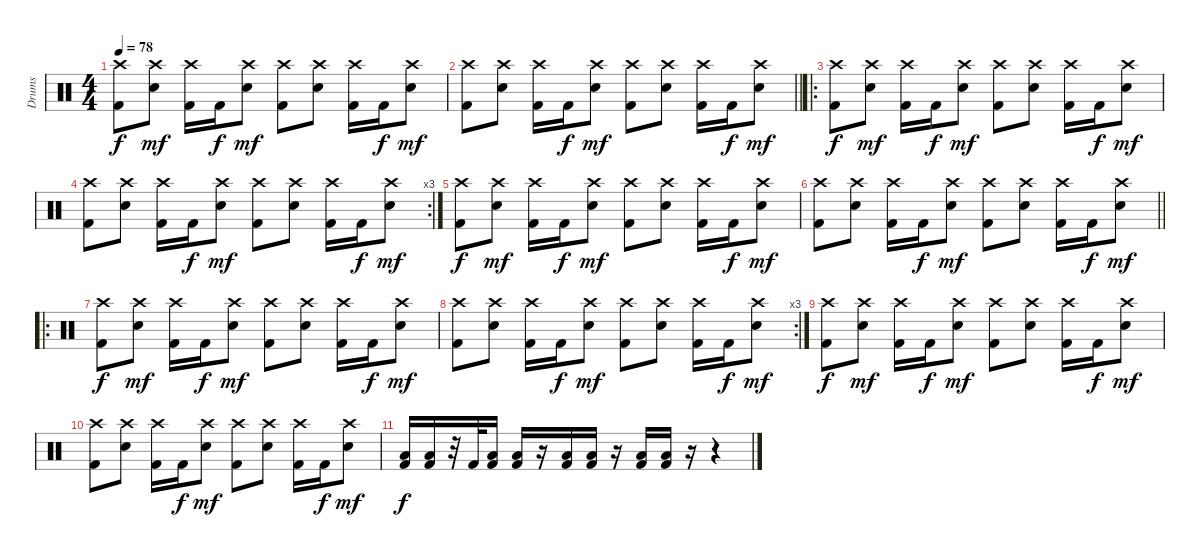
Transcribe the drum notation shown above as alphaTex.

\track ("Drums" "Drums") {instrument percussion}
\staff {score}
\articulation defaults
\ts (4 4)
\tempo 78
\clef neutral
\ks c
("Crash high (hit)" "Kick (hit) 2").8{dy f} ("Crash high (hit)" "Electric Snare (hit)").8{dy mf} ("Crash high (hit)" "Kick (hit) 2").16 "Kick (hit) 2".16{dy f} ("Crash high (hit)" "Electric Snare (hit)").8{dy mf} ("Crash high (hit)" "Kick (hit) 2").8 ("Crash high (hit)" "Electric Snare (hit)").8 ("Crash high (hit)" "Kick (hit) 2").16 "Kick (hit) 2".16{dy f} ("Crash high (hit)" "Electric Snare (hit)").8{dy mf} |
\barLineRight lightlight
("Crash high (hit)" "Kick (hit) 2").8 ("Crash high (hit)" "Electric Snare (hit)").8 ("Crash high (hit)" "Kick (hit) 2").16 "Kick (hit) 2".16{dy f} ("Crash high (hit)" "Electric Snare (hit)").8{dy mf} ("Crash high (hit)" "Kick (hit) 2").8 ("Crash high (hit)" "Electric Snare (hit)").8 ("Crash high (hit)" "Kick (hit) 2").16 "Kick (hit) 2".16{dy f} ("Crash high (hit)" "Electric Snare (hit)").8{dy mf} |
\ro
\section ("" "")
("Crash high (hit)" "Kick (hit) 2").8{dy f} ("Crash high (hit)" "Electric Snare (hit)").8{dy mf} ("Crash high (hit)" "Kick (hit) 2").16 "Kick (hit) 2".16{dy f} ("Crash high (hit)" "Electric Snare (hit)").8{dy mf} ("Crash high (hit)" "Kick (hit) 2").8 ("Crash high (hit)" "Electric Snare (hit)").8 ("Crash high (hit)" "Kick (hit) 2").16 "Kick (hit) 2".16{dy f} ("Crash high (hit)" "Electric Snare (hit)").8{dy mf} |
\rc 3
("Crash high (hit)" "Kick (hit) 2").8 ("Crash high (hit)" "Electric Snare (hit)").8 ("Crash high (hit)" "Kick (hit) 2").16 "Kick (hit) 2".16{dy f} ("Crash high (hit)" "Electric Snare (hit)").8{dy mf} ("Crash high (hit)" "Kick (hit) 2").8 ("Crash high (hit)" "Electric Snare (hit)").8 ("Crash high (hit)" "Kick (hit) 2").16 "Kick (hit) 2".16{dy f} ("Crash high (hit)" "Electric Snare (hit)").8{dy mf} |
("Crash high (hit)" "Kick (hit) 2").8{dy f} ("Crash high (hit)" "Electric Snare (hit)").8{dy mf} ("Crash high (hit)" "Kick (hit) 2").16 "Kick (hit) 2".16{dy f} ("Crash high (hit)" "Electric Snare (hit)").8{dy mf} ("Crash high (hit)" "Kick (hit) 2").8 ("Crash high (hit)" "Electric Snare (hit)").8 ("Crash high (hit)" "Kick (hit) 2").16 "Kick (hit) 2".16{dy f} ("Crash high (hit)" "Electric Snare (hit)").8{dy mf} |
\barLineRight lightlight
("Crash high (hit)" "Kick (hit) 2").8 ("Crash high (hit)" "Electric Snare (hit)").8 ("Crash high (hit)" "Kick (hit) 2").16 "Kick (hit) 2".16{dy f} ("Crash high (hit)" "Electric Snare (hit)").8{dy mf} ("Crash high (hit)" "Kick (hit) 2").8 ("Crash high (hit)" "Electric Snare (hit)").8 ("Crash high (hit)" "Kick (hit) 2").16 "Kick (hit) 2".16{dy f} ("Crash high (hit)" "Electric Snare (hit)").8{dy mf} |
\ro
\section ("" "")
("Crash high (hit)" "Kick (hit) 2").8{dy f} ("Crash high (hit)" "Electric Snare (hit)").8{dy mf} ("Crash high (hit)" "Kick (hit) 2").16 "Kick (hit) 2".16{dy f} ("Crash high (hit)" "Electric Snare (hit)").8{dy mf} ("Crash high (hit)" "Kick (hit) 2").8 ("Crash high (hit)" "Electric Snare (hit)").8 ("Crash high (hit)" "Kick (hit) 2").16 "Kick (hit) 2".16{dy f} ("Crash high (hit)" "Electric Snare (hit)").8{dy mf} |
\rc 3
("Crash high (hit)" "Kick (hit) 2").8 ("Crash high (hit)" "Electric Snare (hit)").8 ("Crash high (hit)" "Kick (hit) 2").16 "Kick (hit) 2".16{dy f} ("Crash high (hit)" "Electric Snare (hit)").8{dy mf} ("Crash high (hit)" "Kick (hit) 2").8 ("Crash high (hit)" "Electric Snare (hit)").8 ("Crash high (hit)" "Kick (hit) 2").16 "Kick (hit) 2".16{dy f} ("Crash high (hit)" "Electric Snare (hit)").8{dy mf} |
("Crash high (hit)" "Kick (hit) 2").8{dy f} ("Crash high (hit)" "Electric Snare (hit)").8{dy mf} ("Crash high (hit)" "Kick (hit) 2").16 "Kick (hit) 2".16{dy f} ("Crash high (hit)" "Electric Snare (hit)").8{dy mf} ("Crash high (hit)" "Kick (hit) 2").8 ("Crash high (hit)" "Electric Snare (hit)").8 ("Crash high (hit)" "Kick (hit) 2").16 "Kick (hit) 2".16{dy f} ("Crash high (hit)" "Electric Snare (hit)").8{dy mf} |
("Crash high (hit)" "Kick (hit) 2").8 ("Crash high (hit)" "Electric Snare (hit)").8 ("Crash high (hit)" "Kick (hit) 2").16 "Kick (hit) 2".16{dy f} ("Crash high (hit)" "Electric Snare (hit)").8{dy mf} ("Crash high (hit)" "Kick (hit) 2").8 ("Crash high (hit)" "Electric Snare (hit)").8 ("Crash high (hit)" "Kick (hit) 2").16 "Kick (hit) 2".16{dy f} ("Crash high (hit)" "Electric Snare (hit)").8{dy mf} |
("Low Tom (hit)" "Kick (hit) 2").16{dy f} ("Low Tom (hit)" "Kick (hit) 2").16 r.32 "Kick (hit) 2".32 ("Low Tom (hit)" "Kick (hit) 2").16 ("Low Tom (hit)" "Kick (hit) 2").16 r.16 ("Low Tom (hit)" "Kick (hit) 2").16 ("Low Tom (hit)" "Kick (hit) 2").16 r.16 ("Low Tom (hit)" "Kick (hit) 2").16 ("Low Tom (hit)" "Kick (hit) 2").16 r.16 r.4
